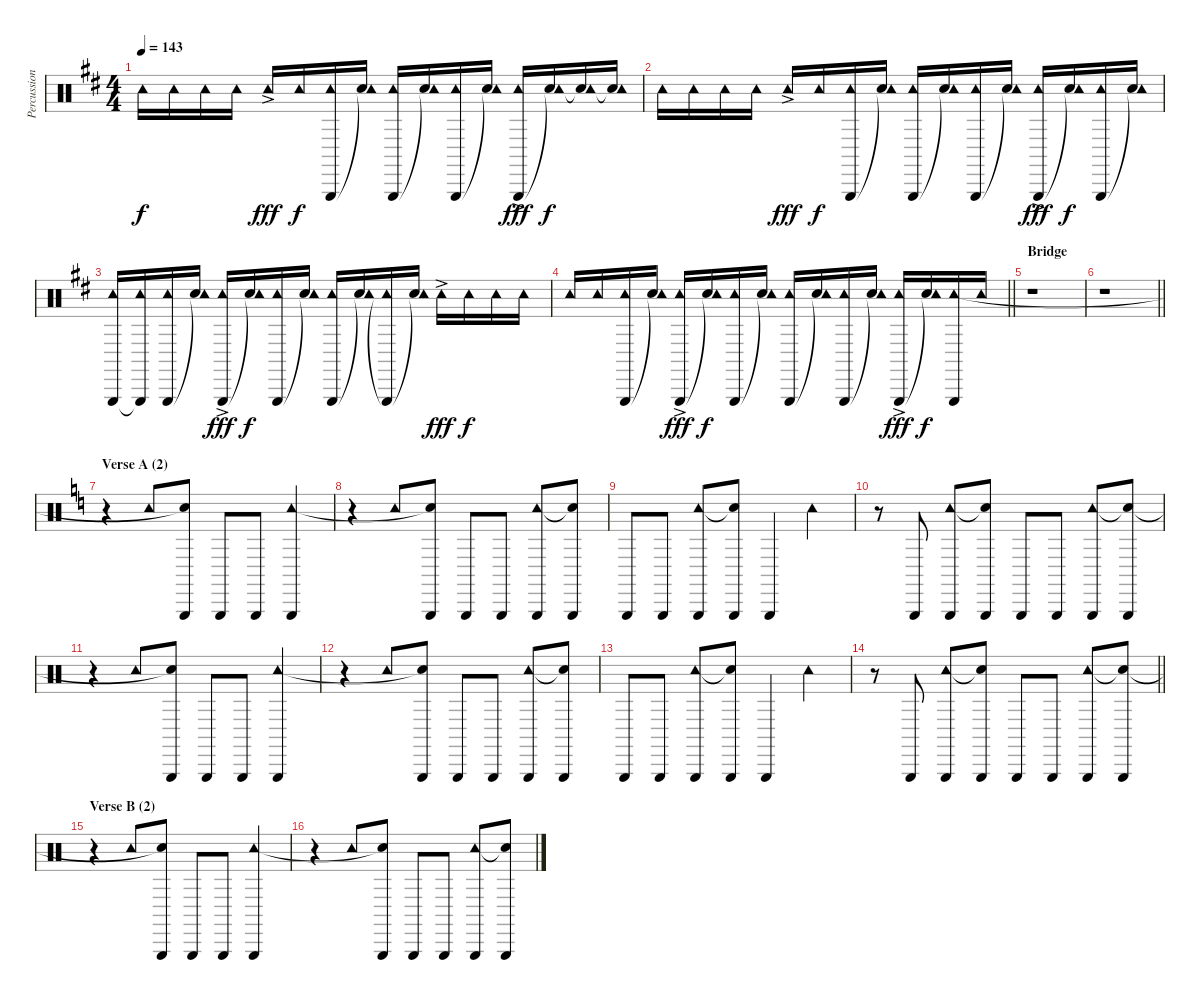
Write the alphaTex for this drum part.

\track ("Percussion" "Percussion") {instrument percussion}
\staff {score}
\articulation defaults
\ts (4 4)
\tempo 143
\clef neutral
\ks d "Tambourine (hit)".16{dy f} "Tambourine (hit)".16 "Tambourine (hit)".16 "Tambourine (hit)".16 "Tambourine (hit)"{ac}.16{dy fff} "Tambourine (hit)".16{dy f}
("Triangle (hit)" "Tambourine (hit)").16 ("Snare (hit)"{t} "Tambourine (hit)").16 ("Triangle (hit)" "Tambourine (hit)").16 ("Snare (hit)"{t} "Tambourine (hit)").16 ("Triangle (hit)" "Tambourine (hit)").16 ("Snare (hit)"{t} "Tambourine (hit)").16 ("Triangle (hit)" "Tambourine (hit)"{ac}).16{dy fff} ("Snare (hit)"{t} "Tambourine (hit)").16{dy f} ("Snare (hit)"{t} "Tambourine (hit)").16 ("Snare (hit)"{t} "Tambourine (hit)").16 |
"Tambourine (hit)".16 "Tambourine (hit)".16 "Tambourine (hit)".16 "Tambourine (hit)".16 "Tambourine (hit)"{ac}.16{dy fff} "Tambourine (hit)".16{dy f} ("Triangle (hit)" "Tambourine (hit)").16 ("Snare (hit)"{t} "Tambourine (hit)").16 ("Triangle (hit)" "Tambourine (hit)").16 ("Snare (hit)"{t} "Tambourine (hit)").16 ("Triangle (hit)" "Tambourine (hit)").16 ("Snare (hit)"{t} "Tambourine (hit)").16 ("Triangle (hit)" "Tambourine (hit)"{ac}).16{dy fff} ("Snare (hit)"{t} "Tambourine (hit)").16{dy f} ("Triangle (hit)" "Tambourine (hit)").16 ("Snare (hit)"{t} "Tambourine (hit)").16 |
("Triangle (hit)" "Tambourine (hit)").16 ("Triangle (hit)"{t} "Tambourine (hit)").16 ("Triangle (hit)" "Tambourine (hit)").16 ("Snare (hit)"{t} "Tambourine (hit)").16 ("Triangle (hit)" "Tambourine (hit)"{ac}).16{dy fff} ("Snare (hit)"{t} "Tambourine (hit)").16{dy f} ("Triangle (hit)" "Tambourine (hit)").16 ("Snare (hit)"{t} "Tambourine (hit)").16 ("Triangle (hit)" "Tambourine (hit)").16 ("Snare (hit)"{t} "Tambourine (hit)").16 ("Triangle (hit)"{t} "Tambourine (hit)").16 ("Snare (hit)"{t} "Tambourine (hit)").16 "Tambourine (hit)"{ac}.16{dy fff} "Tambourine (hit)".16{dy f} "Tambourine (hit)".16 "Tambourine (hit)".16 |
\barLineRight lightlight "Tambourine (hit)".16 "Tambourine (hit)".16
("Triangle (hit)" "Tambourine (hit)").16 ("Snare (hit)"{t} "Tambourine (hit)").16 ("Triangle (hit)" "Tambourine (hit)"{ac}).16{dy fff} ("Snare (hit)"{t} "Tambourine (hit)").16{dy f} ("Triangle (hit)" "Tambourine (hit)").16 ("Snare (hit)"{t} "Tambourine (hit)").16 ("Triangle (hit)" "Tambourine (hit)").16 ("Snare (hit)"{t} "Tambourine (hit)").16 ("Triangle (hit)" "Tambourine (hit)").16 ("Snare (hit)"{t} "Tambourine (hit)").16 ("Triangle (hit)" "Tambourine (hit)"{ac}).16{dy fff} ("Snare (hit)"{t} "Tambourine (hit)").16{dy f} ("Triangle (hit)" "Tambourine (hit)").16 "Tambourine (hit)".16 |
\section ("" "Bridge")
r.1 |
\barLineRight lightlight
r.1 |
\section ("" "Verse A (2)")
\ks aminor
r.4 "Tambourine (hit)".8 ("Triangle (hit)" "Snare (hit)"{t}).8 "Triangle (hit)".8 "Triangle (hit)".8 ("Triangle (hit)" "Tambourine (hit)").4 |
r.4 "Tambourine (hit)".8 ("Triangle (hit)" "Snare (hit)"{t}).8 "Triangle (hit)".8 "Triangle (hit)".8 ("Triangle (hit)" "Tambourine (hit)").8 ("Triangle (hit)" "Snare (hit)"{t}).8 |
"Triangle (hit)".8 "Triangle (hit)".8 ("Triangle (hit)" "Tambourine (hit)").8 ("Triangle (hit)" "Snare (hit)"{t}).8 "Triangle (hit)".4 "Tambourine (hit)".4 |
r.8 "Triangle (hit)".8 ("Triangle (hit)" "Tambourine (hit)").8 ("Triangle (hit)" "Snare (hit)"{t}).8 "Triangle (hit)".8 "Triangle (hit)".8 ("Triangle (hit)" "Tambourine (hit)").8 ("Triangle (hit)" "Snare (hit)"{t}).8 |
r.4 "Tambourine (hit)".8 ("Triangle (hit)" "Snare (hit)"{t}).8 "Triangle (hit)".8 "Triangle (hit)".8 ("Triangle (hit)" "Tambourine (hit)").4 |
r.4 "Tambourine (hit)".8 ("Triangle (hit)" "Snare (hit)"{t}).8 "Triangle (hit)".8 "Triangle (hit)".8 ("Triangle (hit)" "Tambourine (hit)").8 ("Triangle (hit)" "Snare (hit)"{t}).8 |
"Triangle (hit)".8 "Triangle (hit)".8 ("Triangle (hit)" "Tambourine (hit)").8 ("Triangle (hit)" "Snare (hit)"{t}).8 "Triangle (hit)".4 "Tambourine (hit)".4 |
\barLineRight lightlight
r.8 "Triangle (hit)".8 ("Triangle (hit)" "Tambourine (hit)").8 ("Triangle (hit)" "Snare (hit)"{t}).8 "Triangle (hit)".8 "Triangle (hit)".8 ("Triangle (hit)" "Tambourine (hit)").8 ("Triangle (hit)" "Snare (hit)"{t}).8 |
\section ("" "Verse B (2)")
r.4 "Tambourine (hit)".8 ("Triangle (hit)" "Snare (hit)"{t}).8 "Triangle (hit)".8 "Triangle (hit)".8 ("Triangle (hit)" "Tambourine (hit)").4 |
r.4 "Tambourine (hit)".8 ("Triangle (hit)" "Snare (hit)"{t}).8 "Triangle (hit)".8 "Triangle (hit)".8 ("Triangle (hit)" "Tambourine (hit)").8 ("Triangle (hit)" "Snare (hit)"{t}).8
